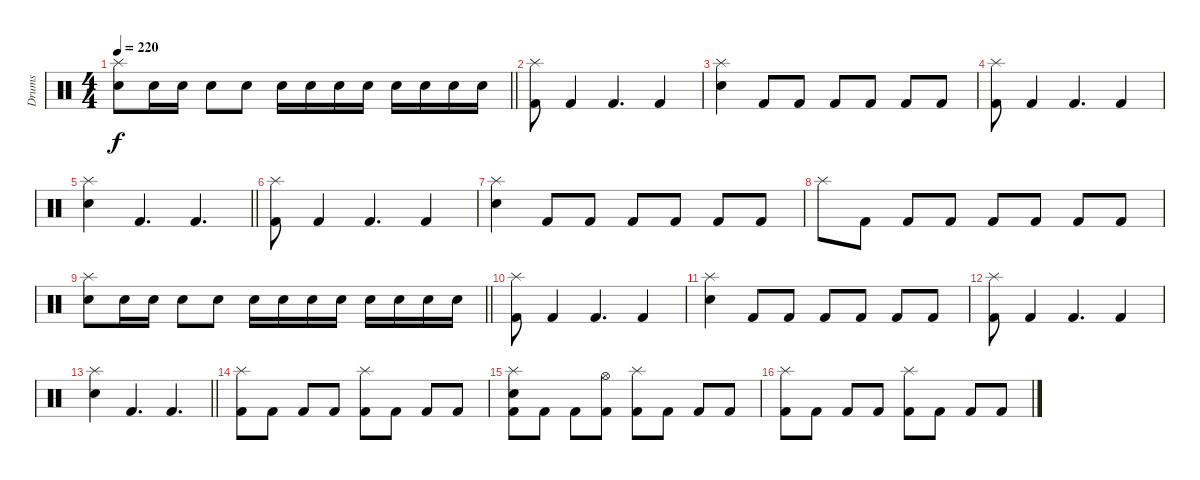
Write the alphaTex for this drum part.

\track ("Drums" "Drums") {instrument percussion}
\staff {score}
\articulation defaults
\ts (4 4)
\tempo 220
\clef neutral
\barLineRight lightlight
\ks c
("Splash (hit)" "Electric Snare (hit)").8{dy f} "Electric Snare (hit)".16 "Electric Snare (hit)".16 "Electric Snare (hit)".8 "Electric Snare (hit)".8 "Electric Snare (hit)".16 "Electric Snare (hit)".16 "Electric Snare (hit)".16 "Electric Snare (hit)".16 "Electric Snare (hit)".16 "Electric Snare (hit)".16 "Electric Snare (hit)".16 "Electric Snare (hit)".16 |
("Splash (hit)" "Kick (hit) 2").8 "Kick (hit) 2".4 "Kick (hit) 2".4{d} "Kick (hit) 2".4 |
("Splash (hit)" "Electric Snare (hit)").4 "Kick (hit) 2".8 "Kick (hit) 2".8 "Kick (hit) 2".8 "Kick (hit) 2".8 "Kick (hit) 2".8 "Kick (hit) 2".8 |
("Splash (hit)" "Kick (hit) 2").8 "Kick (hit) 2".4 "Kick (hit) 2".4{d} "Kick (hit) 2".4 |
\barLineRight lightlight
("Splash (hit)" "Electric Snare (hit)").4 "Kick (hit) 2".4{d} "Kick (hit) 2".4{d} |
("Splash (hit)" "Kick (hit) 2").8 "Kick (hit) 2".4 "Kick (hit) 2".4{d} "Kick (hit) 2".4 |
("Splash (hit)" "Electric Snare (hit)").4 "Kick (hit) 2".8 "Kick (hit) 2".8 "Kick (hit) 2".8 "Kick (hit) 2".8 "Kick (hit) 2".8 "Kick (hit) 2".8 |
"Splash (hit)".8 "Kick (hit) 2".8 "Kick (hit) 2".8 "Kick (hit) 2".8 "Kick (hit) 2".8 "Kick (hit) 2".8 "Kick (hit) 2".8 "Kick (hit) 2".8 |
\barLineRight lightlight
("Splash (hit)" "Electric Snare (hit)").8 "Electric Snare (hit)".16 "Electric Snare (hit)".16 "Electric Snare (hit)".8 "Electric Snare (hit)".8 "Electric Snare (hit)".16 "Electric Snare (hit)".16 "Electric Snare (hit)".16 "Electric Snare (hit)".16 "Electric Snare (hit)".16 "Electric Snare (hit)".16 "Electric Snare (hit)".16 "Electric Snare (hit)".16 |
\section ("" "")
("Splash (hit)" "Kick (hit) 2").8 "Kick (hit) 2".4 "Kick (hit) 2".4{d} "Kick (hit) 2".4 |
("Splash (hit)" "Electric Snare (hit)").4 "Kick (hit) 2".8 "Kick (hit) 2".8 "Kick (hit) 2".8 "Kick (hit) 2".8 "Kick (hit) 2".8 "Kick (hit) 2".8 |
("Splash (hit)" "Kick (hit) 2").8 "Kick (hit) 2".4 "Kick (hit) 2".4{d} "Kick (hit) 2".4 |
\barLineRight lightlight
("Splash (hit)" "Electric Snare (hit)").4 "Kick (hit) 2".4{d} "Kick (hit) 2".4{d} |
("Splash (hit)" "Kick (hit) 2").8 "Kick (hit) 2".8 "Kick (hit) 2".8 "Kick (hit) 2".8 ("Splash (hit)" "Kick (hit) 2").8 "Kick (hit) 2".8 "Kick (hit) 2".8 "Kick (hit) 2".8 |
("Splash (hit)" "Electric Snare (hit)" "Kick (hit) 2").8 "Kick (hit) 2".8 "Kick (hit) 2".8 ("Hi-Hat (open)" "Kick (hit) 2").8 ("Splash (hit)" "Kick (hit) 2").8 "Kick (hit) 2".8 "Kick (hit) 2".8 "Kick (hit) 2".8 |
("Splash (hit)" "Kick (hit) 2").8 "Kick (hit) 2".8 "Kick (hit) 2".8 "Kick (hit) 2".8 ("Splash (hit)" "Kick (hit) 2").8 "Kick (hit) 2".8 "Kick (hit) 2".8 "Kick (hit) 2".8
